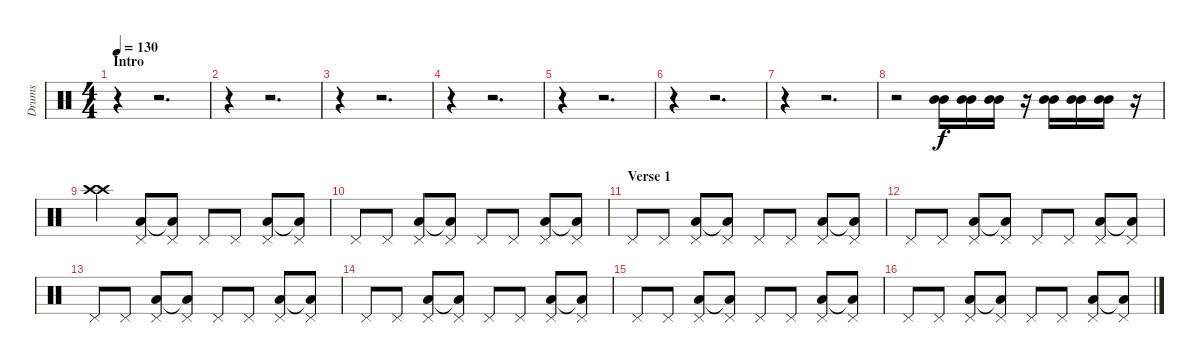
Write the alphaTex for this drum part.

\track ("Drums" "Drums") {instrument percussion}
\staff {score}
\articulation defaults
\ts (4 4)
\section ("" "Intro")
\tempo 130
\clef neutral
\ks c
r.4{dy f} r.2{d} |
r.4 r.2{d} |
r.4 r.2{d} |
r.4 r.2{d} |
r.4 r.2{d} |
r.4 r.2{d} |
r.4 r.2{d} |
r.2 ("Mid Tom (hit)" "Mid Tom (hit)").16 ("Mid Tom (hit)" "Mid Tom (hit)").16 ("Mid Tom (hit)" "Mid Tom (hit)").16 r.16 ("Mid Tom (hit)" "Mid Tom (hit)").16 ("Mid Tom (hit)" "Mid Tom (hit)").16 ("Mid Tom (hit)" "Mid Tom (hit)").16 r.16 |
("Crash high (hit)" "Crash high (hit)").4 ("Pedal Hi-Hat (hit)" "Low Floor Tom (hit)").8 ("Pedal Hi-Hat (hit)" "Low Floor Tom (hit)"{t}).8 "Pedal Hi-Hat (hit)".8 "Pedal Hi-Hat (hit)".8 ("Pedal Hi-Hat (hit)" "Low Floor Tom (hit)").8 ("Pedal Hi-Hat (hit)" "Low Floor Tom (hit)"{t}).8 |
"Pedal Hi-Hat (hit)".8 "Pedal Hi-Hat (hit)".8 ("Pedal Hi-Hat (hit)" "Low Floor Tom (hit)").8 ("Pedal Hi-Hat (hit)" "Low Floor Tom (hit)"{t}).8 "Pedal Hi-Hat (hit)".8 "Pedal Hi-Hat (hit)".8 ("Pedal Hi-Hat (hit)" "Low Floor Tom (hit)").8 ("Pedal Hi-Hat (hit)" "Low Floor Tom (hit)"{t}).8 |
\section ("" "Verse 1")
"Pedal Hi-Hat (hit)".8 "Pedal Hi-Hat (hit)".8 ("Pedal Hi-Hat (hit)" "Low Floor Tom (hit)").8 ("Pedal Hi-Hat (hit)" "Low Floor Tom (hit)"{t}).8 "Pedal Hi-Hat (hit)".8 "Pedal Hi-Hat (hit)".8 ("Pedal Hi-Hat (hit)" "Low Floor Tom (hit)").8 ("Pedal Hi-Hat (hit)" "Low Floor Tom (hit)"{t}).8 |
"Pedal Hi-Hat (hit)".8 "Pedal Hi-Hat (hit)".8 ("Pedal Hi-Hat (hit)" "Low Floor Tom (hit)").8 ("Pedal Hi-Hat (hit)" "Low Floor Tom (hit)"{t}).8 "Pedal Hi-Hat (hit)".8 "Pedal Hi-Hat (hit)".8 ("Pedal Hi-Hat (hit)" "Low Floor Tom (hit)").8 ("Pedal Hi-Hat (hit)" "Low Floor Tom (hit)"{t}).8 |
"Pedal Hi-Hat (hit)".8 "Pedal Hi-Hat (hit)".8 ("Pedal Hi-Hat (hit)" "Low Floor Tom (hit)").8 ("Pedal Hi-Hat (hit)" "Low Floor Tom (hit)"{t}).8 "Pedal Hi-Hat (hit)".8 "Pedal Hi-Hat (hit)".8 ("Pedal Hi-Hat (hit)" "Low Floor Tom (hit)").8 ("Pedal Hi-Hat (hit)" "Low Floor Tom (hit)"{t}).8 |
"Pedal Hi-Hat (hit)".8 "Pedal Hi-Hat (hit)".8 ("Pedal Hi-Hat (hit)" "Low Floor Tom (hit)").8 ("Pedal Hi-Hat (hit)" "Low Floor Tom (hit)"{t}).8 "Pedal Hi-Hat (hit)".8 "Pedal Hi-Hat (hit)".8 ("Pedal Hi-Hat (hit)" "Low Floor Tom (hit)").8 ("Pedal Hi-Hat (hit)" "Low Floor Tom (hit)"{t}).8 |
"Pedal Hi-Hat (hit)".8 "Pedal Hi-Hat (hit)".8 ("Pedal Hi-Hat (hit)" "Low Floor Tom (hit)").8 ("Pedal Hi-Hat (hit)" "Low Floor Tom (hit)"{t}).8 "Pedal Hi-Hat (hit)".8 "Pedal Hi-Hat (hit)".8 ("Pedal Hi-Hat (hit)" "Low Floor Tom (hit)").8 ("Pedal Hi-Hat (hit)" "Low Floor Tom (hit)"{t}).8 |
"Pedal Hi-Hat (hit)".8 "Pedal Hi-Hat (hit)".8 ("Pedal Hi-Hat (hit)" "Low Floor Tom (hit)").8 ("Pedal Hi-Hat (hit)" "Low Floor Tom (hit)"{t}).8 "Pedal Hi-Hat (hit)".8 "Pedal Hi-Hat (hit)".8 ("Pedal Hi-Hat (hit)" "Low Floor Tom (hit)").8 ("Pedal Hi-Hat (hit)" "Low Floor Tom (hit)"{t}).8
